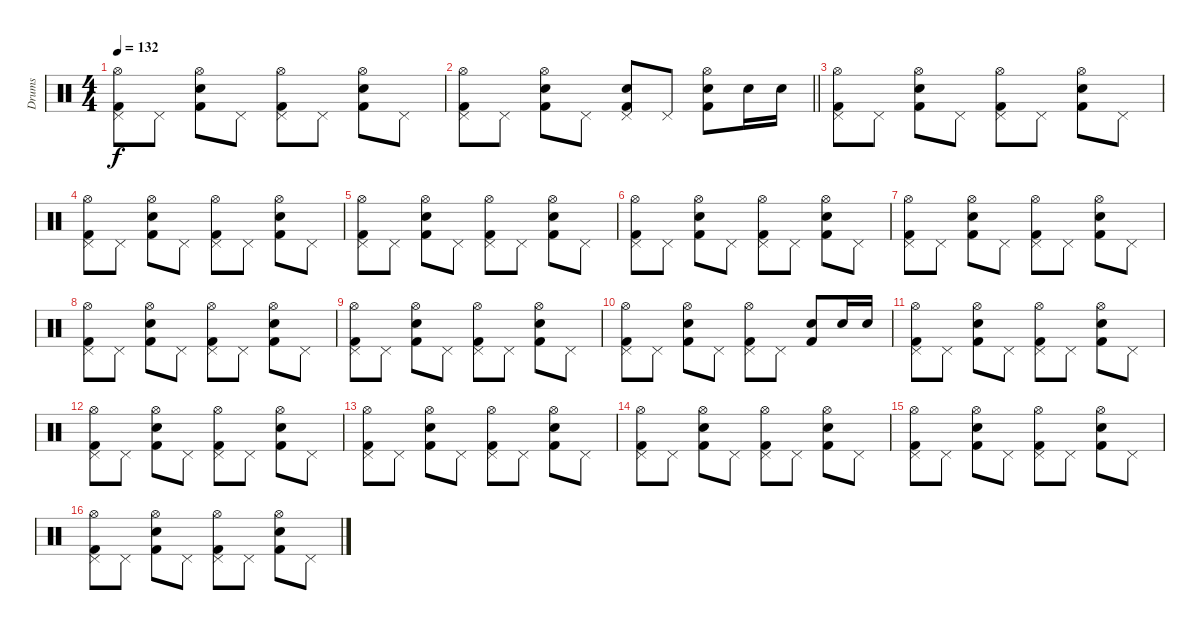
\track ("Drums" "Drums") {instrument percussion}
\staff {score}
\articulation defaults
\ts (4 4)
\tempo 132
\clef neutral
\ks c
("Hi-Hat (open)" "Pedal Hi-Hat (hit)" "Kick (hit) 2").8{dy f} "Pedal Hi-Hat (hit)".8 ("Electric Snare (hit)" "Hi-Hat (open)" "Kick (hit) 2").8 "Pedal Hi-Hat (hit)".8 ("Hi-Hat (open)" "Pedal Hi-Hat (hit)" "Kick (hit) 2").8 "Pedal Hi-Hat (hit)".8 ("Electric Snare (hit)" "Hi-Hat (open)" "Kick (hit) 2").8 "Pedal Hi-Hat (hit)".8 |
\barLineRight lightlight
("Hi-Hat (open)" "Pedal Hi-Hat (hit)" "Kick (hit) 2").8 "Pedal Hi-Hat (hit)".8 ("Electric Snare (hit)" "Hi-Hat (open)" "Kick (hit) 2").8 "Pedal Hi-Hat (hit)".8 ("Electric Snare (hit)" "Pedal Hi-Hat (hit)" "Kick (hit) 2").8 "Pedal Hi-Hat (hit)".8 ("Electric Snare (hit)" "Hi-Hat (open)" "Kick (hit) 2").8 "Electric Snare (hit)".16 "Electric Snare (hit)".16 |
\section ("" "")
("Hi-Hat (open)" "Pedal Hi-Hat (hit)" "Kick (hit) 2").8 "Pedal Hi-Hat (hit)".8 ("Electric Snare (hit)" "Hi-Hat (open)" "Kick (hit) 2").8 "Pedal Hi-Hat (hit)".8 ("Hi-Hat (open)" "Pedal Hi-Hat (hit)" "Kick (hit) 2").8 "Pedal Hi-Hat (hit)".8 ("Electric Snare (hit)" "Hi-Hat (open)" "Kick (hit) 2").8 "Pedal Hi-Hat (hit)".8 |
("Hi-Hat (open)" "Pedal Hi-Hat (hit)" "Kick (hit) 2").8 "Pedal Hi-Hat (hit)".8 ("Electric Snare (hit)" "Hi-Hat (open)" "Kick (hit) 2").8 "Pedal Hi-Hat (hit)".8 ("Hi-Hat (open)" "Pedal Hi-Hat (hit)" "Kick (hit) 2").8 "Pedal Hi-Hat (hit)".8 ("Electric Snare (hit)" "Hi-Hat (open)" "Kick (hit) 2").8 "Pedal Hi-Hat (hit)".8 |
("Hi-Hat (open)" "Pedal Hi-Hat (hit)" "Kick (hit) 2").8 "Pedal Hi-Hat (hit)".8 ("Electric Snare (hit)" "Hi-Hat (open)" "Kick (hit) 2").8 "Pedal Hi-Hat (hit)".8 ("Hi-Hat (open)" "Pedal Hi-Hat (hit)" "Kick (hit) 2").8 "Pedal Hi-Hat (hit)".8 ("Electric Snare (hit)" "Hi-Hat (open)" "Kick (hit) 2").8 "Pedal Hi-Hat (hit)".8 |
("Hi-Hat (open)" "Pedal Hi-Hat (hit)" "Kick (hit) 2").8 "Pedal Hi-Hat (hit)".8 ("Electric Snare (hit)" "Hi-Hat (open)" "Kick (hit) 2").8 "Pedal Hi-Hat (hit)".8 ("Hi-Hat (open)" "Pedal Hi-Hat (hit)" "Kick (hit) 2").8 "Pedal Hi-Hat (hit)".8 ("Electric Snare (hit)" "Hi-Hat (open)" "Kick (hit) 2").8 "Pedal Hi-Hat (hit)".8 |
("Hi-Hat (open)" "Pedal Hi-Hat (hit)" "Kick (hit) 2").8 "Pedal Hi-Hat (hit)".8 ("Electric Snare (hit)" "Hi-Hat (open)" "Kick (hit) 2").8 "Pedal Hi-Hat (hit)".8 ("Hi-Hat (open)" "Pedal Hi-Hat (hit)" "Kick (hit) 2").8 "Pedal Hi-Hat (hit)".8 ("Electric Snare (hit)" "Hi-Hat (open)" "Kick (hit) 2").8 "Pedal Hi-Hat (hit)".8 |
("Hi-Hat (open)" "Pedal Hi-Hat (hit)" "Kick (hit) 2").8 "Pedal Hi-Hat (hit)".8 ("Electric Snare (hit)" "Hi-Hat (open)" "Kick (hit) 2").8 "Pedal Hi-Hat (hit)".8 ("Hi-Hat (open)" "Pedal Hi-Hat (hit)" "Kick (hit) 2").8 "Pedal Hi-Hat (hit)".8 ("Electric Snare (hit)" "Hi-Hat (open)" "Kick (hit) 2").8 "Pedal Hi-Hat (hit)".8 |
("Hi-Hat (open)" "Pedal Hi-Hat (hit)" "Kick (hit) 2").8 "Pedal Hi-Hat (hit)".8 ("Electric Snare (hit)" "Hi-Hat (open)" "Kick (hit) 2").8 "Pedal Hi-Hat (hit)".8 ("Hi-Hat (open)" "Pedal Hi-Hat (hit)" "Kick (hit) 2").8 "Pedal Hi-Hat (hit)".8 ("Electric Snare (hit)" "Hi-Hat (open)" "Kick (hit) 2").8 "Pedal Hi-Hat (hit)".8 |
("Hi-Hat (open)" "Pedal Hi-Hat (hit)" "Kick (hit) 2").8 "Pedal Hi-Hat (hit)".8 ("Electric Snare (hit)" "Hi-Hat (open)" "Kick (hit) 2").8 "Pedal Hi-Hat (hit)".8 ("Hi-Hat (open)" "Pedal Hi-Hat (hit)" "Kick (hit) 2").8 "Pedal Hi-Hat (hit)".8 ("Electric Snare (hit)" "Kick (hit) 2").8 "Electric Snare (hit)".16 "Electric Snare (hit)".16 |
("Hi-Hat (open)" "Pedal Hi-Hat (hit)" "Kick (hit) 2").8 "Pedal Hi-Hat (hit)".8 ("Electric Snare (hit)" "Hi-Hat (open)" "Kick (hit) 2").8 "Pedal Hi-Hat (hit)".8 ("Hi-Hat (open)" "Pedal Hi-Hat (hit)" "Kick (hit) 2").8 "Pedal Hi-Hat (hit)".8 ("Electric Snare (hit)" "Hi-Hat (open)" "Kick (hit) 2").8 "Pedal Hi-Hat (hit)".8 |
("Hi-Hat (open)" "Pedal Hi-Hat (hit)" "Kick (hit) 2").8 "Pedal Hi-Hat (hit)".8 ("Electric Snare (hit)" "Hi-Hat (open)" "Kick (hit) 2").8 "Pedal Hi-Hat (hit)".8 ("Hi-Hat (open)" "Pedal Hi-Hat (hit)" "Kick (hit) 2").8 "Pedal Hi-Hat (hit)".8 ("Electric Snare (hit)" "Hi-Hat (open)" "Kick (hit) 2").8 "Pedal Hi-Hat (hit)".8 |
("Hi-Hat (open)" "Pedal Hi-Hat (hit)" "Kick (hit) 2").8 "Pedal Hi-Hat (hit)".8 ("Electric Snare (hit)" "Hi-Hat (open)" "Kick (hit) 2").8 "Pedal Hi-Hat (hit)".8 ("Hi-Hat (open)" "Pedal Hi-Hat (hit)" "Kick (hit) 2").8 "Pedal Hi-Hat (hit)".8 ("Electric Snare (hit)" "Hi-Hat (open)" "Kick (hit) 2").8 "Pedal Hi-Hat (hit)".8 |
("Hi-Hat (open)" "Pedal Hi-Hat (hit)" "Kick (hit) 2").8 "Pedal Hi-Hat (hit)".8 ("Electric Snare (hit)" "Hi-Hat (open)" "Kick (hit) 2").8 "Pedal Hi-Hat (hit)".8 ("Hi-Hat (open)" "Pedal Hi-Hat (hit)" "Kick (hit) 2").8 "Pedal Hi-Hat (hit)".8 ("Electric Snare (hit)" "Hi-Hat (open)" "Kick (hit) 2").8 "Pedal Hi-Hat (hit)".8 |
("Hi-Hat (open)" "Pedal Hi-Hat (hit)" "Kick (hit) 2").8 "Pedal Hi-Hat (hit)".8 ("Electric Snare (hit)" "Hi-Hat (open)" "Kick (hit) 2").8 "Pedal Hi-Hat (hit)".8 ("Hi-Hat (open)" "Pedal Hi-Hat (hit)" "Kick (hit) 2").8 "Pedal Hi-Hat (hit)".8 ("Electric Snare (hit)" "Hi-Hat (open)" "Kick (hit) 2").8 "Pedal Hi-Hat (hit)".8 |
("Hi-Hat (open)" "Pedal Hi-Hat (hit)" "Kick (hit) 2").8 "Pedal Hi-Hat (hit)".8 ("Electric Snare (hit)" "Hi-Hat (open)" "Kick (hit) 2").8 "Pedal Hi-Hat (hit)".8 ("Hi-Hat (open)" "Pedal Hi-Hat (hit)" "Kick (hit) 2").8 "Pedal Hi-Hat (hit)".8 ("Electric Snare (hit)" "Hi-Hat (open)" "Kick (hit) 2").8 "Pedal Hi-Hat (hit)".8
